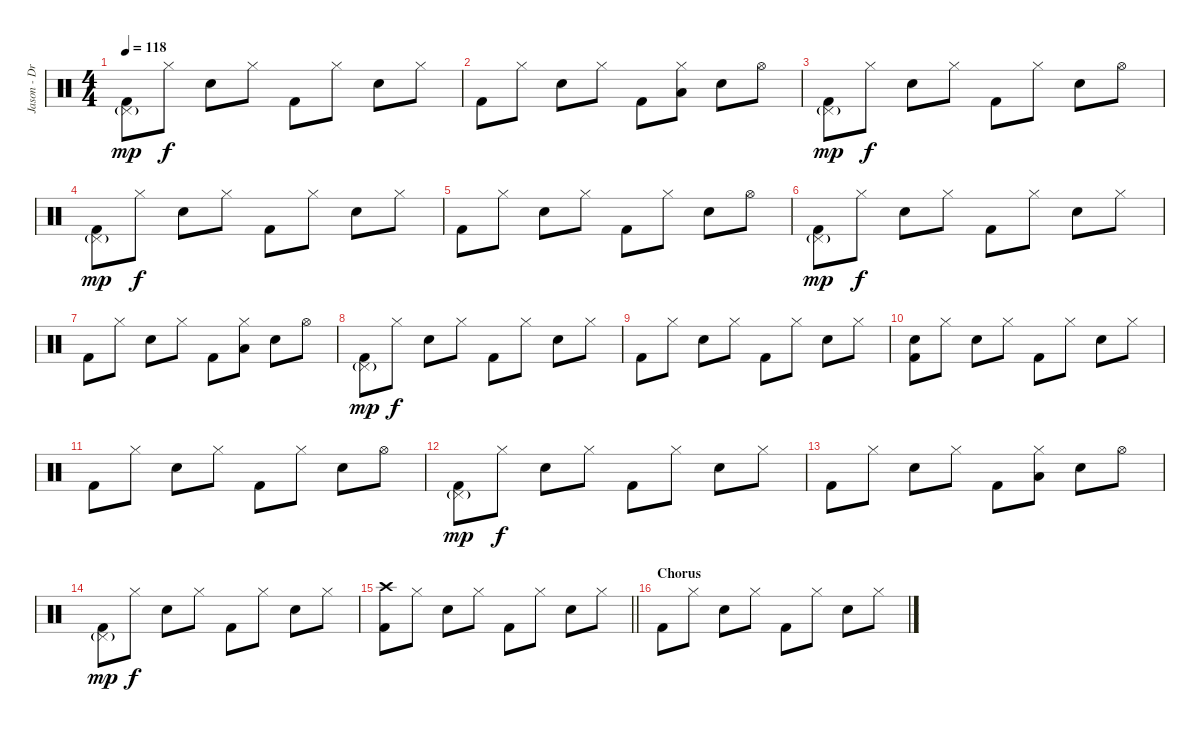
\track ("Jason - Drums" "Jason - Dr") {instrument percussion}
\staff {score}
\articulation defaults
\ts (4 4)
\tempo 118
\clef neutral
\ks c
("Pedal Hi-Hat (hit)"{g} "Kick (hit) 2").8{dy mp} "Hi-Hat (closed)".8{dy f} "Electric Snare (hit)".8 "Hi-Hat (closed)".8 "Kick (hit) 2".8 "Hi-Hat (closed)".8 "Electric Snare (hit)".8 "Hi-Hat (closed)".8 |
"Kick (hit) 2".8 "Hi-Hat (closed)".8 "Electric Snare (hit)".8 "Hi-Hat (closed)".8 "Kick (hit) 2".8 ("Hi-Hat (closed)" "Low Floor Tom (hit)").8 "Electric Snare (hit)".8 "Hi-Hat (open)".8 |
("Pedal Hi-Hat (hit)"{g} "Kick (hit) 2").8{dy mp} "Hi-Hat (closed)".8{dy f} "Electric Snare (hit)".8 "Hi-Hat (closed)".8 "Kick (hit) 2".8 "Hi-Hat (closed)".8 "Electric Snare (hit)".8 "Hi-Hat (open)".8 |
("Pedal Hi-Hat (hit)"{g} "Kick (hit) 2").8{dy mp} "Hi-Hat (closed)".8{dy f} "Electric Snare (hit)".8 "Hi-Hat (closed)".8 "Kick (hit) 2".8 "Hi-Hat (closed)".8 "Electric Snare (hit)".8 "Hi-Hat (closed)".8 |
"Kick (hit) 2".8 "Hi-Hat (closed)".8 "Electric Snare (hit)".8 "Hi-Hat (closed)".8 "Kick (hit) 2".8 "Hi-Hat (closed)".8 "Electric Snare (hit)".8 "Hi-Hat (open)".8 |
("Pedal Hi-Hat (hit)"{g} "Kick (hit) 2").8{dy mp} "Hi-Hat (closed)".8{dy f} "Electric Snare (hit)".8 "Hi-Hat (closed)".8 "Kick (hit) 2".8 "Hi-Hat (closed)".8 "Electric Snare (hit)".8 "Hi-Hat (closed)".8 |
"Kick (hit) 2".8 "Hi-Hat (closed)".8 "Electric Snare (hit)".8 "Hi-Hat (closed)".8 "Kick (hit) 2".8 ("Hi-Hat (closed)" "Low Floor Tom (hit)").8 "Electric Snare (hit)".8 "Hi-Hat (open)".8 |
("Pedal Hi-Hat (hit)"{g} "Kick (hit) 2").8{dy mp} "Hi-Hat (closed)".8{dy f} "Electric Snare (hit)".8 "Hi-Hat (closed)".8 "Kick (hit) 2".8 "Hi-Hat (closed)".8 "Electric Snare (hit)".8 "Hi-Hat (closed)".8 |
"Kick (hit) 2".8 "Hi-Hat (closed)".8 "Electric Snare (hit)".8 "Hi-Hat (closed)".8 "Kick (hit) 2".8 "Hi-Hat (closed)".8 "Electric Snare (hit)".8 "Hi-Hat (closed)".8 |
("Electric Snare (hit)" "Kick (hit) 2").8 "Hi-Hat (closed)".8 "Electric Snare (hit)".8 "Hi-Hat (closed)".8 "Kick (hit) 2".8 "Hi-Hat (closed)".8 "Electric Snare (hit)".8 "Hi-Hat (closed)".8 |
"Kick (hit) 2".8 "Hi-Hat (closed)".8 "Electric Snare (hit)".8 "Hi-Hat (closed)".8 "Kick (hit) 2".8 "Hi-Hat (closed)".8 "Electric Snare (hit)".8 "Hi-Hat (open)".8 |
("Pedal Hi-Hat (hit)"{g} "Kick (hit) 2").8{dy mp} "Hi-Hat (closed)".8{dy f} "Electric Snare (hit)".8 "Hi-Hat (closed)".8 "Kick (hit) 2".8 "Hi-Hat (closed)".8 "Electric Snare (hit)".8 "Hi-Hat (closed)".8 |
"Kick (hit) 2".8 "Hi-Hat (closed)".8 "Electric Snare (hit)".8 "Hi-Hat (closed)".8 "Kick (hit) 2".8 ("Hi-Hat (closed)" "Low Floor Tom (hit)").8 "Electric Snare (hit)".8 "Hi-Hat (open)".8 |
("Pedal Hi-Hat (hit)"{g} "Kick (hit) 2").8{dy mp} "Hi-Hat (closed)".8{dy f} "Electric Snare (hit)".8 "Hi-Hat (closed)".8 "Kick (hit) 2".8 "Hi-Hat (closed)".8 "Electric Snare (hit)".8 "Hi-Hat (closed)".8 |
\barLineRight lightlight
("Crash high (hit)" "Kick (hit) 2").8 "Hi-Hat (closed)".8 "Electric Snare (hit)".8 "Hi-Hat (closed)".8 "Kick (hit) 2".8 "Hi-Hat (closed)".8 "Electric Snare (hit)".8 "Hi-Hat (closed)".8 |
\section ("" "Chorus")
"Kick (hit) 2".8 "Hi-Hat (closed)".8 "Electric Snare (hit)".8 "Hi-Hat (closed)".8 "Kick (hit) 2".8 "Hi-Hat (closed)".8 "Electric Snare (hit)".8 "Hi-Hat (closed)".8
